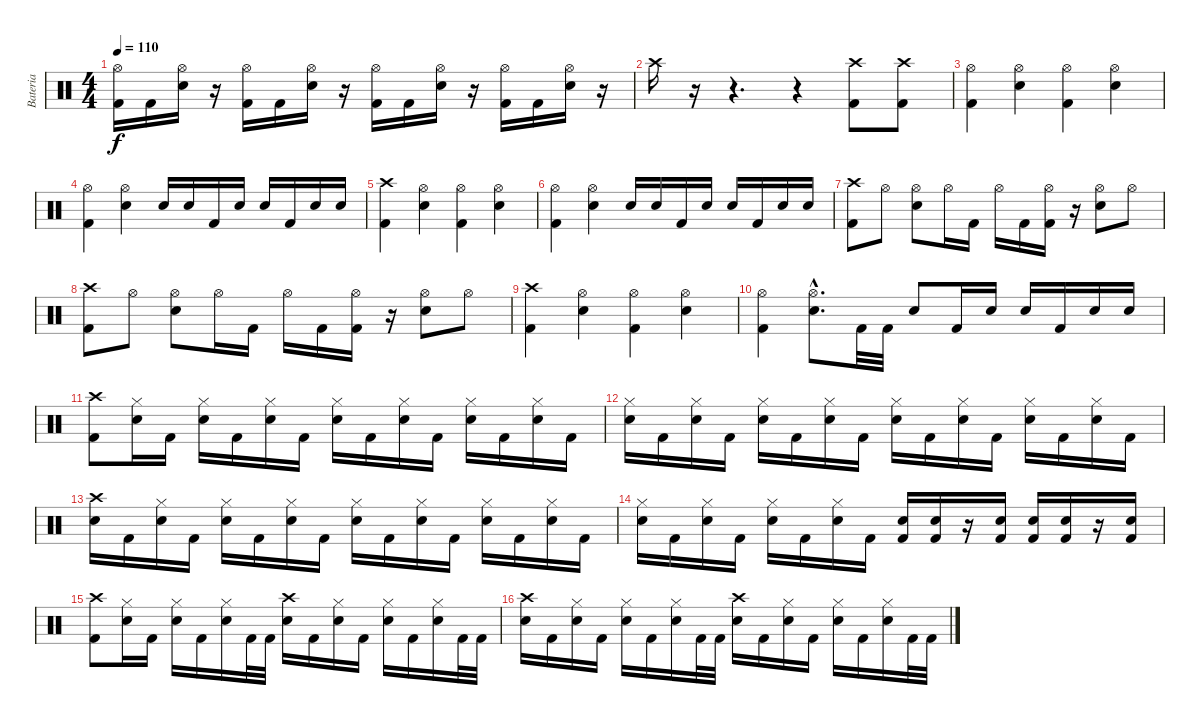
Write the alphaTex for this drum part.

\track ("Bateria" "Bateria") {instrument percussion}
\staff {score}
\articulation defaults
\ts (4 4)
\tempo 110
\clef neutral
\ks c
("Hi-Hat (open)" "Kick (hit) 2").16{dy f} "Kick (hit) 2".16 ("Hi-Hat (open)" "Electric Snare (hit)").16 r.16 ("Hi-Hat (open)" "Kick (hit) 2").16 "Kick (hit) 2".16 ("Hi-Hat (open)" "Electric Snare (hit)").16 r.16 ("Hi-Hat (open)" "Kick (hit) 2").16 "Kick (hit) 2".16 ("Hi-Hat (open)" "Electric Snare (hit)").16 r.16 ("Hi-Hat (open)" "Kick (hit) 2").16 "Kick (hit) 2".16 ("Hi-Hat (open)" "Electric Snare (hit)").16 r.16 |
"Crash high (hit)".16 r.16 r.4{d} r.4 ("Crash high (hit)" "Kick (hit) 2").8 ("Crash high (hit)" "Kick (hit) 2").8 |
("Hi-Hat (open)" "Kick (hit) 2").4 ("Hi-Hat (open)" "Electric Snare (hit)").4 ("Hi-Hat (open)" "Kick (hit) 2").4 ("Hi-Hat (open)" "Electric Snare (hit)").4 |
("Hi-Hat (open)" "Kick (hit) 2").4 ("Hi-Hat (open)" "Electric Snare (hit)").4 "Electric Snare (hit)".16 "Electric Snare (hit)".16 "Kick (hit) 2".16 "Electric Snare (hit)".16 "Electric Snare (hit)".16 "Kick (hit) 2".16 "Electric Snare (hit)".16 "Electric Snare (hit)".16 |
("Crash high (hit)" "Kick (hit) 2").4 ("Hi-Hat (open)" "Electric Snare (hit)").4 ("Hi-Hat (open)" "Kick (hit) 2").4 ("Hi-Hat (open)" "Electric Snare (hit)").4 |
("Hi-Hat (open)" "Kick (hit) 2").4 ("Hi-Hat (open)" "Electric Snare (hit)").4 "Electric Snare (hit)".16 "Electric Snare (hit)".16 "Kick (hit) 2".16 "Electric Snare (hit)".16 "Electric Snare (hit)".16 "Kick (hit) 2".16 "Electric Snare (hit)".16 "Electric Snare (hit)".16 |
("Crash high (hit)" "Kick (hit) 2").8 "Hi-Hat (open)".8 ("Hi-Hat (open)" "Electric Snare (hit)").8 "Hi-Hat (open)".16 "Kick (hit) 2".16 "Hi-Hat (open)".16 "Kick (hit) 2".16 ("Hi-Hat (open)" "Kick (hit) 2").16 r.16 ("Hi-Hat (open)" "Electric Snare (hit)").8 "Hi-Hat (open)".8 |
("Crash high (hit)" "Kick (hit) 2").8 "Hi-Hat (open)".8 ("Hi-Hat (open)" "Electric Snare (hit)").8 "Hi-Hat (open)".16 "Kick (hit) 2".16 "Hi-Hat (open)".16 "Kick (hit) 2".16 ("Hi-Hat (open)" "Kick (hit) 2").16 r.16 ("Hi-Hat (open)" "Electric Snare (hit)").8 "Hi-Hat (open)".8 |
("Crash high (hit)" "Kick (hit) 2").4 ("Hi-Hat (open)" "Electric Snare (hit)").4 ("Hi-Hat (open)" "Kick (hit) 2").4 ("Hi-Hat (open)" "Electric Snare (hit)").4 |
("Hi-Hat (open)" "Kick (hit) 2").4 ("Hi-Hat (open)"{hac} "Electric Snare (hit)"{hac}).8{d} "Kick (hit) 2".32 "Kick (hit) 2".32 "Electric Snare (hit)".8 "Kick (hit) 2".16 "Electric Snare (hit)".16 "Electric Snare (hit)".16 "Kick (hit) 2".16 "Electric Snare (hit)".16 "Electric Snare (hit)".16 |
("Crash high (hit)" "Kick (hit) 2").8 ("Hi-Hat (closed)" "Electric Snare (hit)").16 "Kick (hit) 2".16 ("Hi-Hat (closed)" "Electric Snare (hit)").16 "Kick (hit) 2".16 ("Hi-Hat (closed)" "Electric Snare (hit)").16 "Kick (hit) 2".16 ("Hi-Hat (closed)" "Electric Snare (hit)").16 "Kick (hit) 2".16 ("Hi-Hat (closed)" "Electric Snare (hit)").16 "Kick (hit) 2".16 ("Hi-Hat (closed)" "Electric Snare (hit)").16 "Kick (hit) 2".16 ("Hi-Hat (closed)" "Electric Snare (hit)").16 "Kick (hit) 2".16 |
("Hi-Hat (closed)" "Electric Snare (hit)").16 "Kick (hit) 2".16 ("Hi-Hat (closed)" "Electric Snare (hit)").16 "Kick (hit) 2".16 ("Hi-Hat (closed)" "Electric Snare (hit)").16 "Kick (hit) 2".16 ("Hi-Hat (closed)" "Electric Snare (hit)").16 "Kick (hit) 2".16 ("Hi-Hat (closed)" "Electric Snare (hit)").16 "Kick (hit) 2".16 ("Hi-Hat (closed)" "Electric Snare (hit)").16 "Kick (hit) 2".16 ("Hi-Hat (closed)" "Electric Snare (hit)").16 "Kick (hit) 2".16 ("Hi-Hat (closed)" "Electric Snare (hit)").16 "Kick (hit) 2".16 |
("Crash high (hit)" "Electric Snare (hit)").16 "Kick (hit) 2".16 ("Hi-Hat (closed)" "Electric Snare (hit)").16 "Kick (hit) 2".16 ("Hi-Hat (closed)" "Electric Snare (hit)").16 "Kick (hit) 2".16 ("Hi-Hat (closed)" "Electric Snare (hit)").16 "Kick (hit) 2".16 ("Hi-Hat (closed)" "Electric Snare (hit)").16 "Kick (hit) 2".16 ("Hi-Hat (closed)" "Electric Snare (hit)").16 "Kick (hit) 2".16 ("Hi-Hat (closed)" "Electric Snare (hit)").16 "Kick (hit) 2".16 ("Hi-Hat (closed)" "Electric Snare (hit)").16 "Kick (hit) 2".16 |
("Hi-Hat (closed)" "Electric Snare (hit)").16 "Kick (hit) 2".16 ("Hi-Hat (closed)" "Electric Snare (hit)").16 "Kick (hit) 2".16 ("Hi-Hat (closed)" "Electric Snare (hit)").16 "Kick (hit) 2".16 ("Hi-Hat (closed)" "Electric Snare (hit)").16 "Kick (hit) 2".16 ("Electric Snare (hit)" "Kick (hit) 2").16 ("Electric Snare (hit)" "Kick (hit) 2").16 r.16 ("Electric Snare (hit)" "Kick (hit) 2").16 ("Electric Snare (hit)" "Kick (hit) 2").16 ("Electric Snare (hit)" "Kick (hit) 2").16 r.16 ("Electric Snare (hit)" "Kick (hit) 2").16 |
("Crash high (hit)" "Kick (hit) 2").8 ("Hi-Hat (closed)" "Electric Snare (hit)").16 "Kick (hit) 2".16 ("Hi-Hat (closed)" "Electric Snare (hit)").16 "Kick (hit) 2".16 ("Hi-Hat (closed)" "Electric Snare (hit)").16 "Kick (hit) 2".32 "Kick (hit) 2".32 ("Crash high (hit)" "Electric Snare (hit)").16 "Kick (hit) 2".16 ("Hi-Hat (closed)" "Electric Snare (hit)").16 "Kick (hit) 2".16 ("Hi-Hat (closed)" "Electric Snare (hit)").16 "Kick (hit) 2".16 ("Hi-Hat (closed)" "Electric Snare (hit)").16 "Kick (hit) 2".32 "Kick (hit) 2".32 |
("Crash high (hit)" "Electric Snare (hit)").16 "Kick (hit) 2".16 ("Hi-Hat (closed)" "Electric Snare (hit)").16 "Kick (hit) 2".16 ("Hi-Hat (closed)" "Electric Snare (hit)").16 "Kick (hit) 2".16 ("Hi-Hat (closed)" "Electric Snare (hit)").16 "Kick (hit) 2".32 "Kick (hit) 2".32 ("Crash high (hit)" "Electric Snare (hit)").16 "Kick (hit) 2".16 ("Hi-Hat (closed)" "Electric Snare (hit)").16 "Kick (hit) 2".16 ("Hi-Hat (closed)" "Electric Snare (hit)").16 "Kick (hit) 2".16 ("Hi-Hat (closed)" "Electric Snare (hit)").16 "Kick (hit) 2".32 "Kick (hit) 2".32
